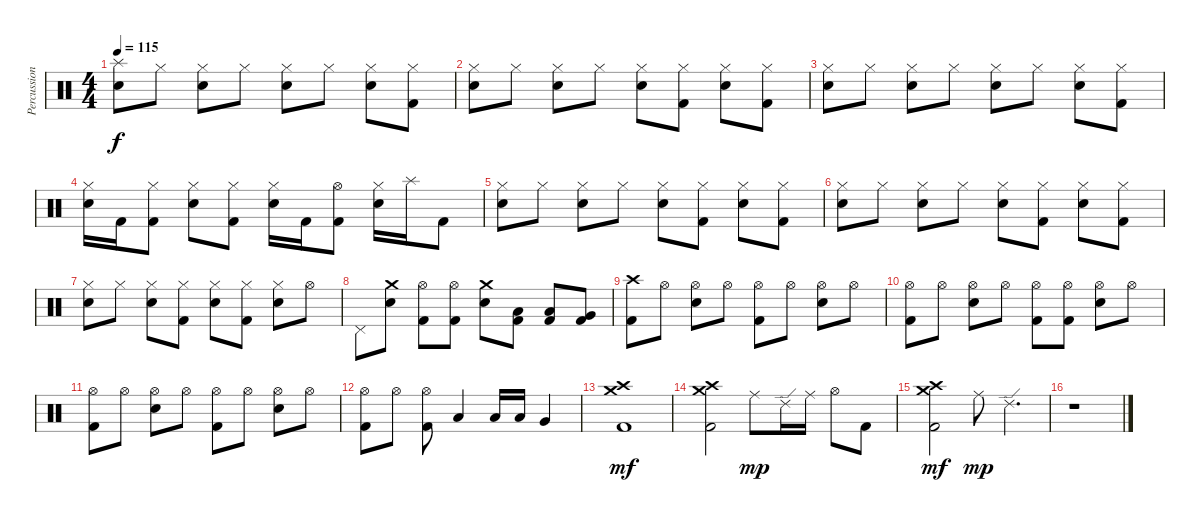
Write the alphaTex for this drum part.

\track ("Percussion" "Percussion") {instrument percussion}
\staff {score}
\articulation defaults
\ts (4 4)
\tempo 115
\clef neutral
\ks c
("Splash (hit)" "Electric Snare (hit)").8{dy f} "Hi-Hat (closed)".8 ("Hi-Hat (closed)" "Electric Snare (hit)").8 "Hi-Hat (closed)".8 ("Hi-Hat (closed)" "Electric Snare (hit)").8 "Hi-Hat (closed)".8 ("Hi-Hat (closed)" "Electric Snare (hit)").8 ("Hi-Hat (closed)" "Kick (hit) 2").8 |
("Hi-Hat (closed)" "Electric Snare (hit)").8 "Hi-Hat (closed)".8 ("Hi-Hat (closed)" "Electric Snare (hit)").8 "Hi-Hat (closed)".8 ("Hi-Hat (closed)" "Electric Snare (hit)").8 ("Hi-Hat (closed)" "Kick (hit) 2").8 ("Hi-Hat (closed)" "Electric Snare (hit)").8 ("Hi-Hat (closed)" "Kick (hit) 2").8 |
("Hi-Hat (closed)" "Electric Snare (hit)").8 "Hi-Hat (closed)".8 ("Hi-Hat (closed)" "Electric Snare (hit)").8 "Hi-Hat (closed)".8 ("Hi-Hat (closed)" "Electric Snare (hit)").8 "Hi-Hat (closed)".8 ("Hi-Hat (closed)" "Electric Snare (hit)").8 ("Hi-Hat (closed)" "Kick (hit) 2").8 |
("Hi-Hat (closed)" "Electric Snare (hit)").16 "Kick (hit) 2".16 ("Hi-Hat (closed)" "Kick (hit) 2").8 ("Hi-Hat (closed)" "Electric Snare (hit)").8 ("Hi-Hat (closed)" "Kick (hit) 2").8 ("Hi-Hat (closed)" "Electric Snare (hit)").16 "Kick (hit) 2".16 ("Hi-Hat (open)" "Kick (hit) 2").8 ("Hi-Hat (closed)" "Electric Snare (hit)").16 "Splash (hit)".16 "Kick (hit) 2".8 |
("Hi-Hat (closed)" "Electric Snare (hit)").8 "Hi-Hat (closed)".8 ("Hi-Hat (closed)" "Electric Snare (hit)").8 "Hi-Hat (closed)".8 ("Hi-Hat (closed)" "Electric Snare (hit)").8 ("Hi-Hat (closed)" "Kick (hit) 2").8 ("Hi-Hat (closed)" "Electric Snare (hit)").8 ("Hi-Hat (closed)" "Kick (hit) 2").8 |
("Hi-Hat (closed)" "Electric Snare (hit)").8 "Hi-Hat (closed)".8 ("Hi-Hat (closed)" "Electric Snare (hit)").8 "Hi-Hat (closed)".8 ("Hi-Hat (closed)" "Electric Snare (hit)").8 ("Hi-Hat (closed)" "Kick (hit) 2").8 ("Hi-Hat (closed)" "Electric Snare (hit)").8 ("Hi-Hat (closed)" "Kick (hit) 2").8 |
("Hi-Hat (closed)" "Electric Snare (hit)").8 "Hi-Hat (closed)".8 ("Hi-Hat (closed)" "Electric Snare (hit)").8 ("Hi-Hat (closed)" "Kick (hit) 2").8 ("Hi-Hat (closed)" "Electric Snare (hit)").8 ("Hi-Hat (closed)" "Kick (hit) 2").8 ("Hi-Hat (closed)" "Electric Snare (hit)").8 "Hi-Hat (open)".8 |
"Pedal Hi-Hat (hit)".8 ("Crash medium (hit)" "Electric Snare (hit)").8 ("Hi-Hat (open)" "Kick (hit) 2").8 ("Hi-Hat (open)" "Kick (hit) 2").8 ("Crash medium (hit)" "Electric Snare (hit)").8 ("Low Floor Tom (hit)" "Kick (hit) 2").8 ("Low Tom (hit)" "Kick (hit) 2").8 ("Very Low Tom (hit)" "Kick (hit) 2").8 |
("Crash high (hit)" "Kick (hit) 2").8 "Hi-Hat (open)".8 ("Hi-Hat (open)" "Electric Snare (hit)").8 "Hi-Hat (open)".8 ("Hi-Hat (open)" "Kick (hit) 2").8 "Hi-Hat (open)".8 ("Hi-Hat (open)" "Electric Snare (hit)").8 "Hi-Hat (open)".8 |
("Hi-Hat (open)" "Kick (hit) 2").8 "Hi-Hat (open)".8 ("Hi-Hat (open)" "Electric Snare (hit)").8 "Hi-Hat (open)".8 ("Hi-Hat (open)" "Kick (hit) 2").8 ("Hi-Hat (open)" "Kick (hit) 2").8 ("Hi-Hat (open)" "Electric Snare (hit)").8 "Hi-Hat (open)".8 |
("Hi-Hat (open)" "Kick (hit) 2").8 "Hi-Hat (open)".8 ("Hi-Hat (open)" "Electric Snare (hit)").8 "Hi-Hat (open)".8 ("Hi-Hat (open)" "Kick (hit) 2").8 "Hi-Hat (open)".8 ("Hi-Hat (open)" "Electric Snare (hit)").8 "Hi-Hat (open)".8 |
("Hi-Hat (open)" "Kick (hit) 2").8 "Hi-Hat (open)".8 ("Hi-Hat (open)" "Kick (hit) 2").8 "Low Tom (hit)".4 "Low Tom (hit)".16 "Low Tom (hit)".16 "Very Low Tom (hit)".4 |
("Crash medium (hit)" "Crash high (hit)" "Kick (hit) 2").1{dy mf} |
("Crash medium (hit)" "Crash high (hit)" "Kick (hit) 2").2 "Ride (middle)".8{dy mp} "Ride (edge) 2".16 "Ride (middle)".16 "Hi-Hat (open)".8 "Kick (hit) 2".8 |
("Crash medium (hit)" "Crash high (hit)" "Kick (hit) 2").2{dy mf} "Ride (middle)".8{dy mp} "Ride (edge) 2".4{d} |
r.1
